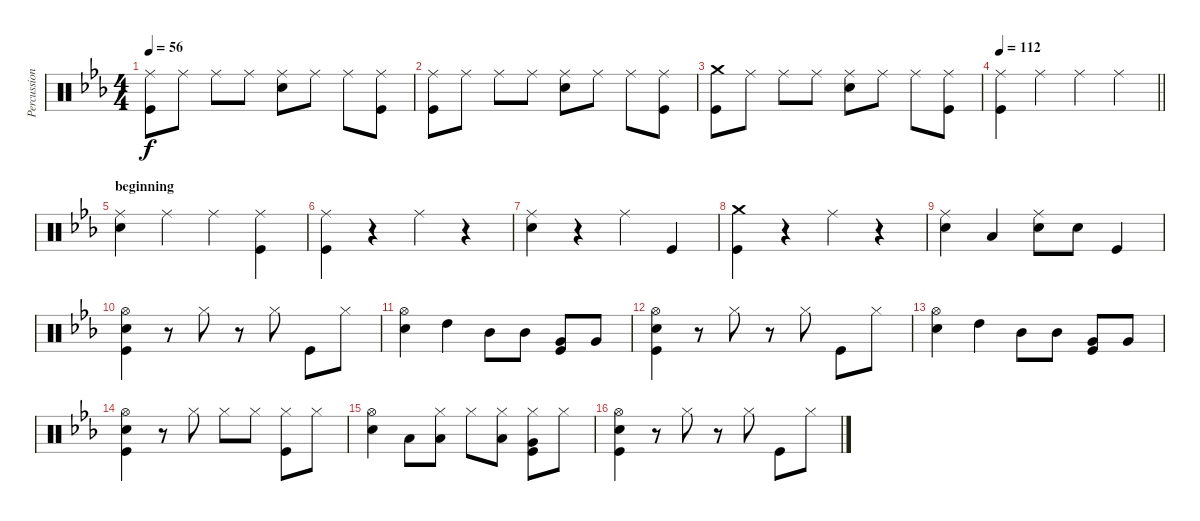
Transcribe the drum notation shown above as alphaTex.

\track ("Percussion" "Percussion") {instrument percussion}
\staff {score}
\articulation defaults
\ts (4 4)
\tempo 56
\clef neutral
\ks cminor
("Ride (middle)" "Kick (hit)").8{dy f} "Ride (middle)".8 "Ride (middle)".8 "Ride (middle)".8 ("Snare (hit) 2" "Ride (middle)").8 "Ride (middle)".8 "Ride (middle)".8 ("Kick (hit)" "Ride (middle)").8 |
("Ride (middle)" "Kick (hit)").8 "Ride (middle)".8 "Ride (middle)".8 "Ride (middle)".8 ("Snare (hit) 2" "Ride (middle)").8 "Ride (middle)".8 "Ride (middle)".8 ("Kick (hit)" "Ride (middle)").8 |
("Crash medium (hit)" "Kick (hit)").8 "Ride (middle)".8 "Ride (middle)".8 "Ride (middle)".8 ("Snare (hit) 2" "Ride (middle)").8 "Ride (middle)".8 "Ride (middle)".8 ("Kick (hit)" "Ride (middle)").8 |
\tempo 112
\barLineRight lightlight
("Ride (middle)" "Kick (hit)").4 "Ride (middle)".4 "Ride (middle)".4 "Ride (middle)".4 |
\section ("" "beginning")
("Snare (hit) 2" "Ride (middle)").4 "Ride (middle)".4 "Ride (middle)".4 ("Kick (hit)" "Ride (middle)").4 |
("Ride (middle)" "Kick (hit)").4 r.4 "Ride (middle)".4 r.4 |
("Snare (hit) 2" "Ride (middle)").4 r.4 "Ride (middle)".4 "Kick (hit)".4 |
("Crash medium (hit)" "Kick (hit)").4 r.4 "Ride (middle)".4 r.4 |
("Snare (hit) 2" "Ride (middle)").4 "Low Floor Tom (hit)".4 ("Snare (hit) 2" "Ride (middle)").8 "Snare (hit) 2".8 "Kick (hit)".4 |
("Hi-Hat (open)" "Kick (hit)" "Snare (hit) 2").4 r.8 "Hi-Hat (closed)".8 r.8 "Hi-Hat (closed)".8 "Kick (hit)".8 "Hi-Hat (closed)".8 |
("Snare (hit) 2" "Hi-Hat (open)").4 "High Tom (hit)".4 "Mid Tom (hit)".8 "Mid Tom (hit)".8 ("Very Low Tom (hit)" "Kick (hit)").8 "Very Low Tom (hit)".8 |
("Hi-Hat (open)" "Kick (hit)" "Snare (hit) 2").4 r.8 "Hi-Hat (closed)".8 r.8 "Hi-Hat (closed)".8 "Kick (hit)".8 "Hi-Hat (closed)".8 |
("Snare (hit) 2" "Hi-Hat (open)").4 "High Tom (hit)".4 "Mid Tom (hit)".8 "Mid Tom (hit)".8 ("Very Low Tom (hit)" "Kick (hit)").8 "Very Low Tom (hit)".8 |
("Hi-Hat (open)" "Kick (hit)" "Snare (hit) 2").4 r.8 "Hi-Hat (closed)".8 "Hi-Hat (closed)".8 "Hi-Hat (closed)".8 ("Kick (hit)" "Hi-Hat (closed)").8 "Hi-Hat (closed)".8 |
("Snare (hit) 2" "Hi-Hat (open)").4 "Low Tom (hit)".8 ("Low Tom (hit)" "Hi-Hat (closed)").8 "Hi-Hat (closed)".8 ("Low Tom (hit)" "Hi-Hat (closed)").8 ("Very Low Tom (hit)" "Kick (hit)" "Hi-Hat (closed)").8 "Hi-Hat (closed)".8 |
("Hi-Hat (open)" "Kick (hit)" "Snare (hit) 2").4 r.8 "Hi-Hat (closed)".8 r.8 "Hi-Hat (closed)".8 "Kick (hit)".8 "Hi-Hat (closed)".8
